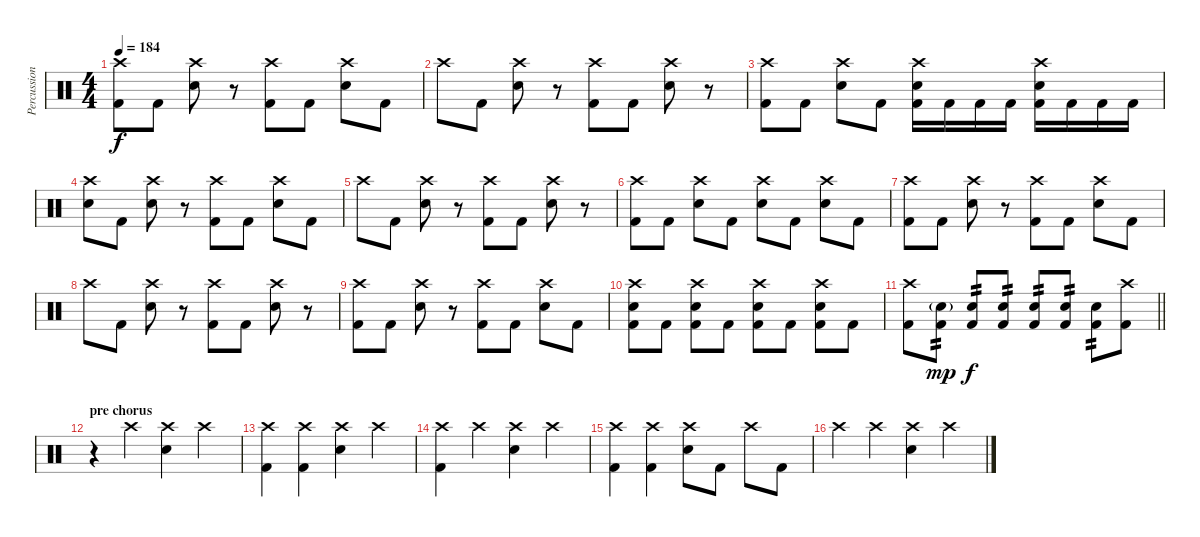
\track ("Percussion" "Percussion") {instrument percussion}
\staff {score}
\articulation defaults
\ts (4 4)
\tempo 184
\clef neutral
\ks c
("Crash high (hit)" "Kick (hit) 2").8{dy f} "Kick (hit) 2".8 ("Crash high (hit)" "Electric Snare (hit)").8 r.8 ("Crash high (hit)" "Kick (hit) 2").8 "Kick (hit) 2".8 ("Crash high (hit)" "Electric Snare (hit)").8 "Kick (hit) 2".8 |
"Crash high (hit)".8 "Kick (hit) 2".8 ("Crash high (hit)" "Electric Snare (hit)").8 r.8 ("Crash high (hit)" "Kick (hit) 2").8 "Kick (hit) 2".8 ("Crash high (hit)" "Electric Snare (hit)").8 r.8 |
("Crash high (hit)" "Kick (hit) 2").8 "Kick (hit) 2".8 ("Crash high (hit)" "Electric Snare (hit)").8 "Kick (hit) 2".8 ("Crash high (hit)" "Electric Snare (hit)" "Kick (hit) 2").16 "Kick (hit) 2".16 "Kick (hit) 2".16 "Kick (hit) 2".16 ("Crash high (hit)" "Electric Snare (hit)" "Kick (hit) 2").16 "Kick (hit) 2".16 "Kick (hit) 2".16 "Kick (hit) 2".16 |
("Crash high (hit)" "Electric Snare (hit)").8 "Kick (hit) 2".8 ("Crash high (hit)" "Electric Snare (hit)").8 r.8 ("Crash high (hit)" "Kick (hit) 2").8 "Kick (hit) 2".8 ("Crash high (hit)" "Electric Snare (hit)").8 "Kick (hit) 2".8 |
"Crash high (hit)".8 "Kick (hit) 2".8 ("Crash high (hit)" "Electric Snare (hit)").8 r.8 ("Crash high (hit)" "Kick (hit) 2").8 "Kick (hit) 2".8 ("Crash high (hit)" "Electric Snare (hit)").8 r.8 |
("Crash high (hit)" "Kick (hit) 2").8 "Kick (hit) 2".8 ("Crash high (hit)" "Electric Snare (hit)").8 "Kick (hit) 2".8 ("Crash high (hit)" "Electric Snare (hit)").8 "Kick (hit) 2".8 ("Crash high (hit)" "Electric Snare (hit)").8 "Kick (hit) 2".8 |
("Crash high (hit)" "Kick (hit) 2").8 "Kick (hit) 2".8 ("Crash high (hit)" "Electric Snare (hit)").8 r.8 ("Crash high (hit)" "Kick (hit) 2").8 "Kick (hit) 2".8 ("Crash high (hit)" "Electric Snare (hit)").8 "Kick (hit) 2".8 |
"Crash high (hit)".8 "Kick (hit) 2".8 ("Crash high (hit)" "Electric Snare (hit)").8 r.8 ("Crash high (hit)" "Kick (hit) 2").8 "Kick (hit) 2".8 ("Crash high (hit)" "Electric Snare (hit)").8 r.8 |
("Crash high (hit)" "Kick (hit) 2").8 "Kick (hit) 2".8 ("Crash high (hit)" "Electric Snare (hit)").8 r.8 ("Crash high (hit)" "Kick (hit) 2").8 "Kick (hit) 2".8 ("Crash high (hit)" "Electric Snare (hit)").8 "Kick (hit) 2".8 |
("Crash high (hit)" "Electric Snare (hit)" "Kick (hit) 2").8 "Kick (hit) 2".8 ("Crash high (hit)" "Electric Snare (hit)" "Kick (hit) 2").8 "Kick (hit) 2".8 ("Crash high (hit)" "Electric Snare (hit)" "Kick (hit) 2").8 "Kick (hit) 2".8 ("Crash high (hit)" "Electric Snare (hit)" "Kick (hit) 2").8 "Kick (hit) 2".8 |
\barLineRight lightlight
("Crash high (hit)" "Kick (hit) 2").8 ("Electric Snare (hit)"{g} "Kick (hit) 2").8{tp 2 dy mp} ("Electric Snare (hit)" "Kick (hit) 2").8{tp 2 dy f} ("Electric Snare (hit)" "Kick (hit) 2").8{tp 2} ("Electric Snare (hit)" "Kick (hit) 2").8{tp 2} ("Electric Snare (hit)" "Kick (hit) 2").8{tp 2} ("Electric Snare (hit)" "Kick (hit) 2").8{tp 2} ("Crash high (hit)" "Kick (hit) 2").8 |
\section ("" "pre chorus")
r.4 "Crash high (hit)".4 ("Crash high (hit)" "Electric Snare (hit)").4 "Crash high (hit)".4 |
("Crash high (hit)" "Kick (hit) 2").4 ("Crash high (hit)" "Kick (hit) 2").4 ("Crash high (hit)" "Electric Snare (hit)").4 "Crash high (hit)".4 |
("Crash high (hit)" "Kick (hit) 2").4 "Crash high (hit)".4 ("Crash high (hit)" "Electric Snare (hit)").4 "Crash high (hit)".4 |
("Crash high (hit)" "Kick (hit) 2").4 ("Crash high (hit)" "Kick (hit) 2").4 ("Crash high (hit)" "Electric Snare (hit)").8 "Kick (hit) 2".8 "Crash high (hit)".8 "Kick (hit) 2".8 |
"Crash high (hit)".4 "Crash high (hit)".4 ("Crash high (hit)" "Electric Snare (hit)").4 "Crash high (hit)".4
